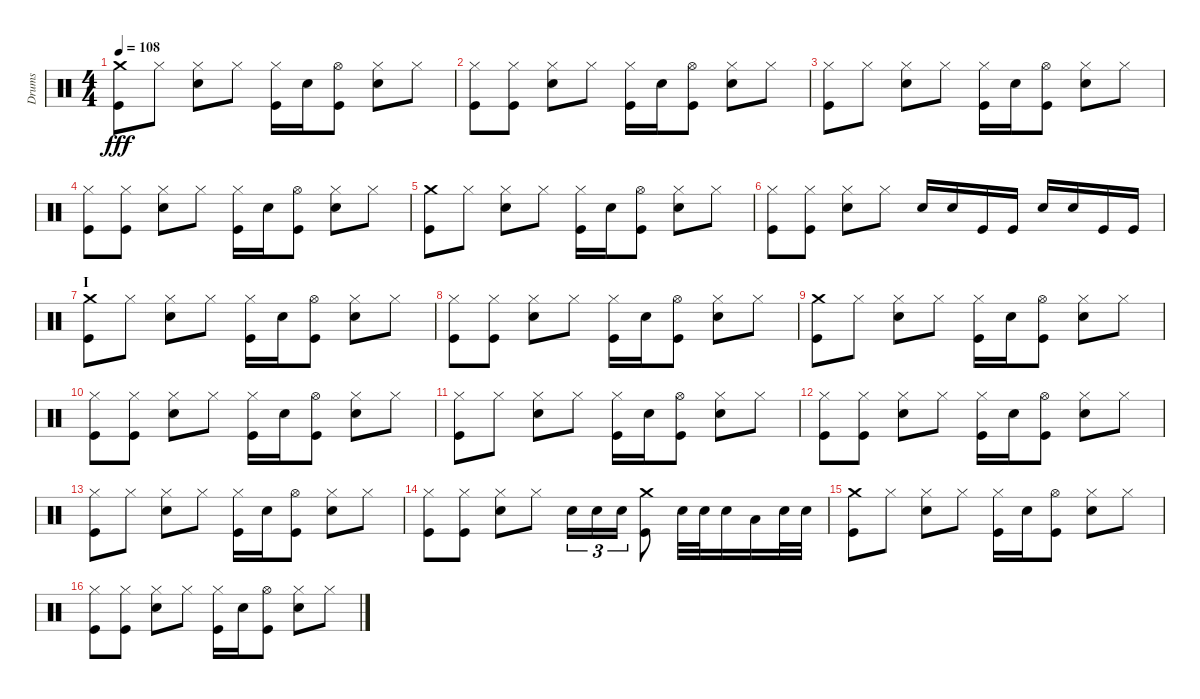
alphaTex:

\track ("Drums" "Drums") {instrument percussion}
\staff {score}
\articulation defaults
\ts (4 4)
\tempo 108
\clef neutral
\ks c
("Crash medium (hit)" "Kick (hit)").8{dy fff} "Hi-Hat (closed)".8 ("Hi-Hat (closed)" "Snare (hit) 2").8 "Hi-Hat (closed)".8 ("Hi-Hat (closed)" "Kick (hit)").16 "Snare (hit) 2".16 ("Hi-Hat (open)" "Kick (hit)").8 ("Hi-Hat (closed)" "Snare (hit) 2").8 "Hi-Hat (closed)".8 |
("Hi-Hat (closed)" "Kick (hit)").8 ("Hi-Hat (closed)" "Kick (hit)").8 ("Hi-Hat (closed)" "Snare (hit) 2").8 "Hi-Hat (closed)".8 ("Hi-Hat (closed)" "Kick (hit)").16 "Snare (hit) 2".16 ("Hi-Hat (open)" "Kick (hit)").8 ("Hi-Hat (closed)" "Snare (hit) 2").8 "Hi-Hat (closed)".8 |
("Hi-Hat (closed)" "Kick (hit)").8 "Hi-Hat (closed)".8 ("Hi-Hat (closed)" "Snare (hit) 2").8 "Hi-Hat (closed)".8 ("Hi-Hat (closed)" "Kick (hit)").16 "Snare (hit) 2".16 ("Hi-Hat (open)" "Kick (hit)").8 ("Hi-Hat (closed)" "Snare (hit) 2").8 "Hi-Hat (closed)".8 |
("Hi-Hat (closed)" "Kick (hit)").8 ("Hi-Hat (closed)" "Kick (hit)").8 ("Hi-Hat (closed)" "Snare (hit) 2").8 "Hi-Hat (closed)".8 ("Hi-Hat (closed)" "Kick (hit)").16 "Snare (hit) 2".16 ("Hi-Hat (open)" "Kick (hit)").8 ("Hi-Hat (closed)" "Snare (hit) 2").8 "Hi-Hat (closed)".8 |
("Crash medium (hit)" "Kick (hit)").8 "Hi-Hat (closed)".8 ("Hi-Hat (closed)" "Snare (hit) 2").8 "Hi-Hat (closed)".8 ("Hi-Hat (closed)" "Kick (hit)").16 "Snare (hit) 2".16 ("Hi-Hat (open)" "Kick (hit)").8 ("Hi-Hat (closed)" "Snare (hit) 2").8 "Hi-Hat (closed)".8 |
("Hi-Hat (closed)" "Kick (hit)").8 ("Hi-Hat (closed)" "Kick (hit)").8 ("Hi-Hat (closed)" "Snare (hit) 2").8 "Hi-Hat (closed)".8 "Snare (hit) 2".16 "Snare (hit) 2".16 "Kick (hit)".16 "Kick (hit)".16 "Snare (hit) 2".16 "Snare (hit) 2".16 "Kick (hit)".16 "Kick (hit)".16 |
\section ("" "I")
("Crash medium (hit)" "Kick (hit)").8 "Hi-Hat (closed)".8 ("Hi-Hat (closed)" "Snare (hit) 2").8 "Hi-Hat (closed)".8 ("Hi-Hat (closed)" "Kick (hit)").16 "Snare (hit) 2".16 ("Hi-Hat (open)" "Kick (hit)").8 ("Hi-Hat (closed)" "Snare (hit) 2").8 "Hi-Hat (closed)".8 |
("Hi-Hat (closed)" "Kick (hit)").8 ("Hi-Hat (closed)" "Kick (hit)").8 ("Hi-Hat (closed)" "Snare (hit) 2").8 "Hi-Hat (closed)".8 ("Hi-Hat (closed)" "Kick (hit)").16 "Snare (hit) 2".16 ("Hi-Hat (open)" "Kick (hit)").8 ("Hi-Hat (closed)" "Snare (hit) 2").8 "Hi-Hat (closed)".8 |
("Crash medium (hit)" "Kick (hit)").8 "Hi-Hat (closed)".8 ("Hi-Hat (closed)" "Snare (hit) 2").8 "Hi-Hat (closed)".8 ("Hi-Hat (closed)" "Kick (hit)").16 "Snare (hit) 2".16 ("Hi-Hat (open)" "Kick (hit)").8 ("Hi-Hat (closed)" "Snare (hit) 2").8 "Hi-Hat (closed)".8 |
("Hi-Hat (closed)" "Kick (hit)").8 ("Hi-Hat (closed)" "Kick (hit)").8 ("Hi-Hat (closed)" "Snare (hit) 2").8 "Hi-Hat (closed)".8 ("Hi-Hat (closed)" "Kick (hit)").16 "Snare (hit) 2".16 ("Hi-Hat (open)" "Kick (hit)").8 ("Hi-Hat (closed)" "Snare (hit) 2").8 "Hi-Hat (closed)".8 |
("Hi-Hat (closed)" "Kick (hit)").8 "Hi-Hat (closed)".8 ("Hi-Hat (closed)" "Snare (hit) 2").8 "Hi-Hat (closed)".8 ("Hi-Hat (closed)" "Kick (hit)").16 "Snare (hit) 2".16 ("Hi-Hat (open)" "Kick (hit)").8 ("Hi-Hat (closed)" "Snare (hit) 2").8 "Hi-Hat (closed)".8 |
("Hi-Hat (closed)" "Kick (hit)").8 ("Hi-Hat (closed)" "Kick (hit)").8 ("Hi-Hat (closed)" "Snare (hit) 2").8 "Hi-Hat (closed)".8 ("Hi-Hat (closed)" "Kick (hit)").16 "Snare (hit) 2".16 ("Hi-Hat (open)" "Kick (hit)").8 ("Hi-Hat (closed)" "Snare (hit) 2").8 "Hi-Hat (closed)".8 |
("Hi-Hat (closed)" "Kick (hit)").8 "Hi-Hat (closed)".8 ("Hi-Hat (closed)" "Snare (hit) 2").8 "Hi-Hat (closed)".8 ("Hi-Hat (closed)" "Kick (hit)").16 "Snare (hit) 2".16 ("Hi-Hat (open)" "Kick (hit)").8 ("Hi-Hat (closed)" "Snare (hit) 2").8 "Hi-Hat (closed)".8 |
("Hi-Hat (closed)" "Kick (hit)").8 ("Hi-Hat (closed)" "Kick (hit)").8 ("Hi-Hat (closed)" "Snare (hit) 2").8 "Hi-Hat (closed)".8 "Snare (hit) 2".16{tu (3 2)} "Snare (hit) 2".16{tu (3 2)} "Snare (hit) 2".16{tu (3 2)} ("Crash medium (hit)" "Kick (hit)").8 "Snare (hit) 2".32 "Snare (hit) 2".32 "Snare (hit) 2".16 "Low Tom (hit)".16 "Snare (hit) 2".32 "Snare (hit) 2".32 |
("Crash medium (hit)" "Kick (hit)").8 "Hi-Hat (closed)".8 ("Hi-Hat (closed)" "Snare (hit) 2").8 "Hi-Hat (closed)".8 ("Hi-Hat (closed)" "Kick (hit)").16 "Snare (hit) 2".16 ("Hi-Hat (open)" "Kick (hit)").8 ("Hi-Hat (closed)" "Snare (hit) 2").8 "Hi-Hat (closed)".8 |
("Hi-Hat (closed)" "Kick (hit)").8 ("Hi-Hat (closed)" "Kick (hit)").8 ("Hi-Hat (closed)" "Snare (hit) 2").8 "Hi-Hat (closed)".8 ("Hi-Hat (closed)" "Kick (hit)").16 "Snare (hit) 2".16 ("Hi-Hat (open)" "Kick (hit)").8 ("Hi-Hat (closed)" "Snare (hit) 2").8 "Hi-Hat (closed)".8
